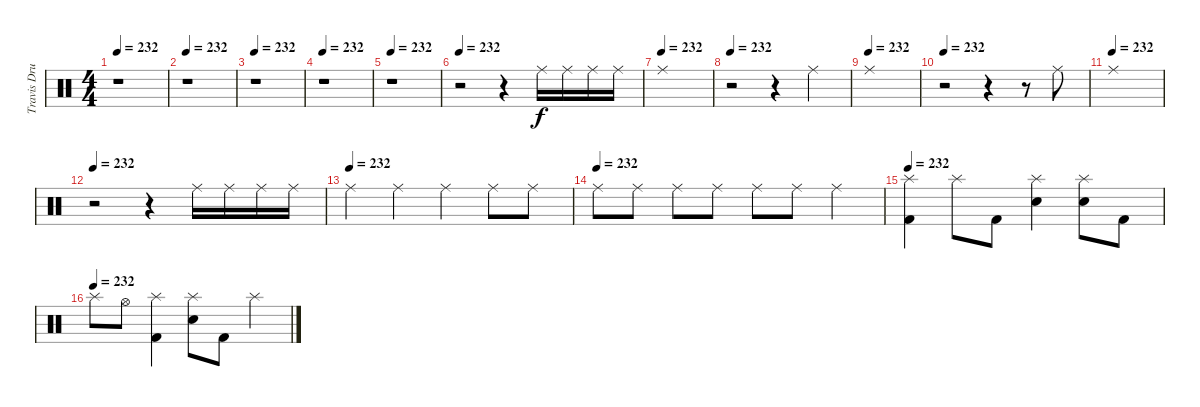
\track ("Travis Drums" "Travis Dru") {instrument percussion}
\staff {score}
\articulation defaults
\ts (4 4)
\tempo 232
\clef neutral
\ks c
r.1{dy ff} |
\tempo 232
r.1 |
\tempo 232
r.1 |
\tempo 232
r.1 |
\tempo 232
r.1 |
\tempo 232
r.2 r.4 "Ride (middle)".16{dy f} "Ride (middle)".16 "Ride (middle)".16 "Ride (middle)".16 |
\tempo (232)
"Ride (middle)".1 |
\tempo 232
r.2 r.4 "Ride (middle)".4 |
\tempo (232)
"Ride (middle)".1 |
\tempo 232
r.2 r.4 r.8 "Ride (middle)".8 |
\tempo (232)
"Ride (middle)".1 |
\tempo 232
r.2 r.4 "Ride (middle)".16 "Ride (middle)".16 "Ride (middle)".16 "Ride (middle)".16 |
\tempo (232)
"Ride (middle)".4 "Ride (middle)".4 "Ride (middle)".4 "Ride (middle)".8 "Ride (middle)".8 |
\tempo (232)
"Ride (middle)".8 "Ride (middle)".8 "Ride (middle)".8 "Ride (middle)".8 "Ride (middle)".8 "Ride (middle)".8 "Ride (middle)".4 |
\tempo 232
("Splash (hit)" "Kick (hit) 2").4 "Splash (hit)".8 "Kick (hit) 2".8 ("Splash (hit)" "Electric Snare (hit)").4 ("Splash (hit)" "Electric Snare (hit)").8 "Kick (hit) 2".8 |
\tempo (232)
"Splash (hit)".8 "Hi-Hat (open)".8 ("Splash (hit)" "Kick (hit) 2").4 ("Splash (hit)" "Electric Snare (hit)").8 "Kick (hit) 2".8 "Splash (hit)".4
